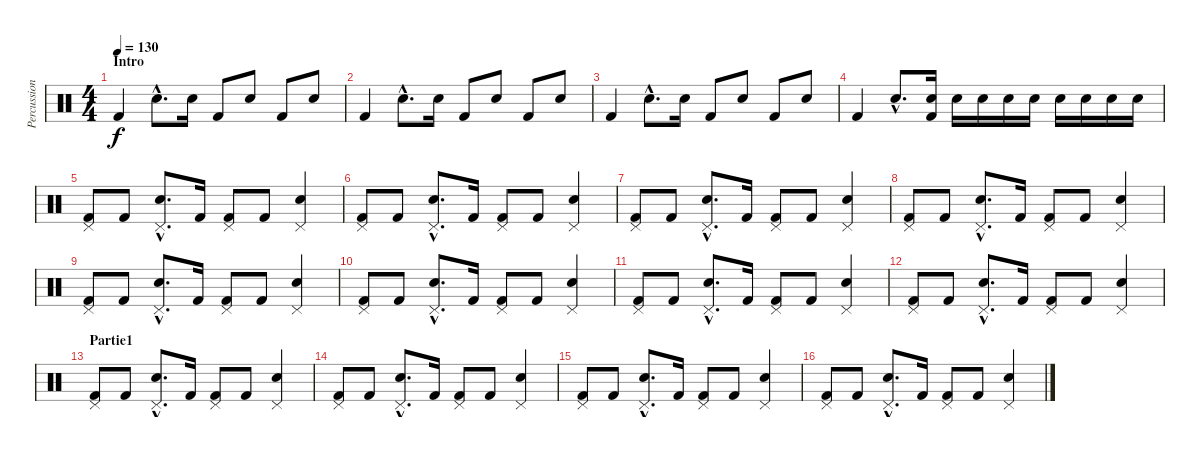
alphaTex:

\track ("Percussions" "Percussion") {instrument percussion}
\staff {score}
\articulation defaults
\ts (4 4)
\section ("" "Intro")
\tempo 130
\clef neutral
\ks c "Kick (hit) 2".4{dy f} "Hand Clap (hit)"{hac}.8{d} "Hand Clap (hit)".16 "Kick (hit) 2".8 "Hand Clap (hit)".8 "Kick (hit) 2".8 "Hand Clap (hit)".8
|
"Kick (hit) 2".4 "Hand Clap (hit)"{hac}.8{d} "Hand Clap (hit)".16 "Kick (hit) 2".8 "Hand Clap (hit)".8 "Kick (hit) 2".8 "Hand Clap (hit)".8 |
"Kick (hit) 2".4 "Hand Clap (hit)"{hac}.8{d} "Hand Clap (hit)".16 "Kick (hit) 2".8 "Hand Clap (hit)".8 "Kick (hit) 2".8 "Hand Clap (hit)".8 |
"Kick (hit) 2".4 "Hand Clap (hit)"{hac}.8{d} ("Hand Clap (hit)" "Kick (hit) 2").16 "Hand Clap (hit)".16 "Hand Clap (hit)".16 "Hand Clap (hit)".16 "Hand Clap (hit)".16 "Hand Clap (hit)".16 "Hand Clap (hit)".16 "Hand Clap (hit)".16 "Hand Clap (hit)".16 |
("Pedal Hi-Hat (hit)" "Kick (hit) 2").8 "Kick (hit) 2".8 ("Pedal Hi-Hat (hit)"{hac} "Hand Clap (hit)"{hac}).8{d} "Kick (hit) 2".16 ("Pedal Hi-Hat (hit)" "Kick (hit) 2").8 "Kick (hit) 2".8 ("Pedal Hi-Hat (hit)" "Hand Clap (hit)").4 |
("Pedal Hi-Hat (hit)" "Kick (hit) 2").8 "Kick (hit) 2".8 ("Pedal Hi-Hat (hit)"{hac} "Hand Clap (hit)"{hac}).8{d} "Kick (hit) 2".16 ("Pedal Hi-Hat (hit)" "Kick (hit) 2").8 "Kick (hit) 2".8 ("Pedal Hi-Hat (hit)" "Hand Clap (hit)").4 |
("Pedal Hi-Hat (hit)" "Kick (hit) 2").8 "Kick (hit) 2".8 ("Pedal Hi-Hat (hit)"{hac} "Hand Clap (hit)"{hac}).8{d} "Kick (hit) 2".16 ("Pedal Hi-Hat (hit)" "Kick (hit) 2").8 "Kick (hit) 2".8 ("Pedal Hi-Hat (hit)" "Hand Clap (hit)").4 |
("Pedal Hi-Hat (hit)" "Kick (hit) 2").8 "Kick (hit) 2".8 ("Pedal Hi-Hat (hit)"{hac} "Hand Clap (hit)"{hac}).8{d} "Kick (hit) 2".16 ("Pedal Hi-Hat (hit)" "Kick (hit) 2").8 "Kick (hit) 2".8 ("Pedal Hi-Hat (hit)" "Hand Clap (hit)").4 |
("Pedal Hi-Hat (hit)" "Kick (hit) 2").8 "Kick (hit) 2".8 ("Pedal Hi-Hat (hit)"{hac} "Hand Clap (hit)"{hac}).8{d} "Kick (hit) 2".16 ("Pedal Hi-Hat (hit)" "Kick (hit) 2").8 "Kick (hit) 2".8 ("Pedal Hi-Hat (hit)" "Hand Clap (hit)").4 |
("Pedal Hi-Hat (hit)" "Kick (hit) 2").8 "Kick (hit) 2".8 ("Pedal Hi-Hat (hit)"{hac} "Hand Clap (hit)"{hac}).8{d} "Kick (hit) 2".16 ("Pedal Hi-Hat (hit)" "Kick (hit) 2").8 "Kick (hit) 2".8 ("Pedal Hi-Hat (hit)" "Hand Clap (hit)").4 |
("Pedal Hi-Hat (hit)" "Kick (hit) 2").8 "Kick (hit) 2".8 ("Pedal Hi-Hat (hit)"{hac} "Hand Clap (hit)"{hac}).8{d} "Kick (hit) 2".16 ("Pedal Hi-Hat (hit)" "Kick (hit) 2").8 "Kick (hit) 2".8 ("Pedal Hi-Hat (hit)" "Hand Clap (hit)").4 |
("Pedal Hi-Hat (hit)" "Kick (hit) 2").8 "Kick (hit) 2".8 ("Pedal Hi-Hat (hit)"{hac} "Hand Clap (hit)"{hac}).8{d} "Kick (hit) 2".16 ("Pedal Hi-Hat (hit)" "Kick (hit) 2").8 "Kick (hit) 2".8 ("Pedal Hi-Hat (hit)" "Hand Clap (hit)").4 |
\section ("" "Partie1")
("Pedal Hi-Hat (hit)" "Kick (hit) 2").8 "Kick (hit) 2".8 ("Pedal Hi-Hat (hit)"{hac} "Hand Clap (hit)"{hac}).8{d} "Kick (hit) 2".16 ("Pedal Hi-Hat (hit)" "Kick (hit) 2").8 "Kick (hit) 2".8 ("Pedal Hi-Hat (hit)" "Hand Clap (hit)").4 |
("Pedal Hi-Hat (hit)" "Kick (hit) 2").8 "Kick (hit) 2".8 ("Pedal Hi-Hat (hit)"{hac} "Hand Clap (hit)"{hac}).8{d} "Kick (hit) 2".16 ("Pedal Hi-Hat (hit)" "Kick (hit) 2").8 "Kick (hit) 2".8 ("Pedal Hi-Hat (hit)" "Hand Clap (hit)").4 |
("Pedal Hi-Hat (hit)" "Kick (hit) 2").8 "Kick (hit) 2".8 ("Pedal Hi-Hat (hit)"{hac} "Hand Clap (hit)"{hac}).8{d} "Kick (hit) 2".16 ("Pedal Hi-Hat (hit)" "Kick (hit) 2").8 "Kick (hit) 2".8 ("Pedal Hi-Hat (hit)" "Hand Clap (hit)").4 |
("Pedal Hi-Hat (hit)" "Kick (hit) 2").8 "Kick (hit) 2".8 ("Pedal Hi-Hat (hit)"{hac} "Hand Clap (hit)"{hac}).8{d} "Kick (hit) 2".16 ("Pedal Hi-Hat (hit)" "Kick (hit) 2").8 "Kick (hit) 2".8 ("Pedal Hi-Hat (hit)" "Hand Clap (hit)").4
